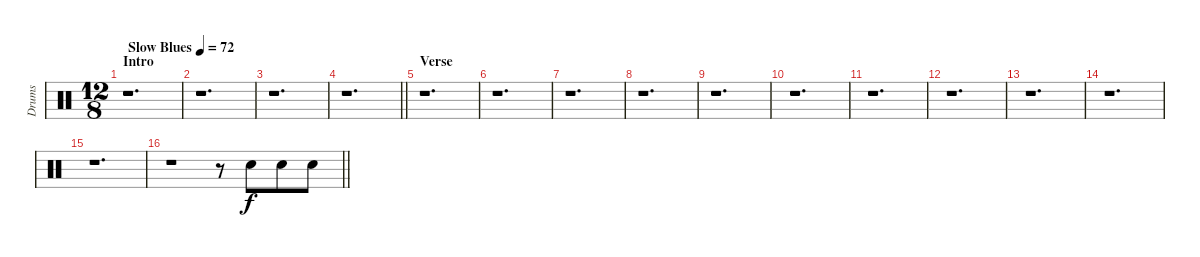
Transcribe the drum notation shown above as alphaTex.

\track ("Drums" "Drums") {instrument percussion}
\staff {score}
\articulation defaults
\ts (12 8)
\section ("" "Intro")
\tempo (72 "Slow Blues")
\clef neutral
\ks c
r.1{d dy f} |
r.1{d} |
r.1{d} |
\barLineRight lightlight
r.1{d} |
\section ("" "Verse")
r.1{d} |
r.1{d} |
r.1{d} |
r.1{d} |
r.1{d} |
r.1{d} |
r.1{d} |
r.1{d} |
r.1{d} |
r.1{d} |
r.1{d} |
\barLineRight lightlight
r.1 r.8 "Snare (hit) 2".8 "Snare (hit) 2".8 "Snare (hit) 2".8
